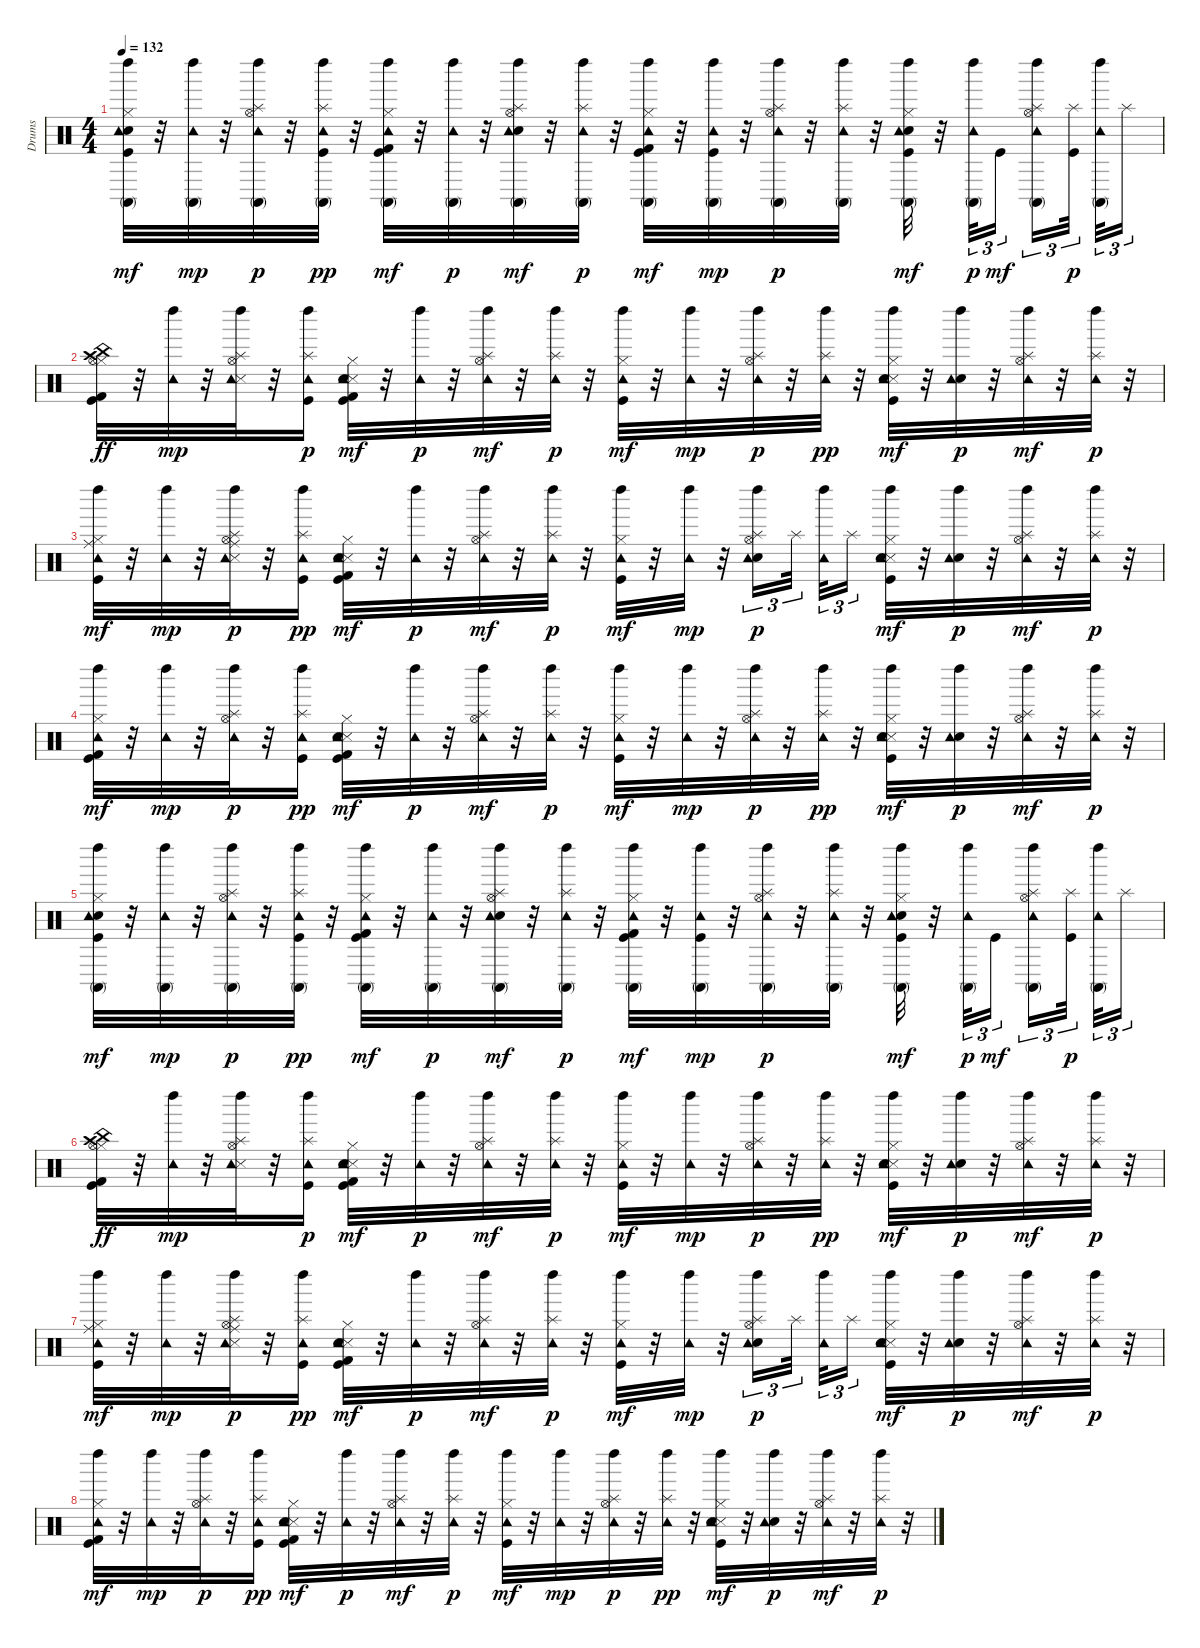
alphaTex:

\track ("Drums" "Drums") {instrument percussion}
\staff {score}
\articulation defaults
\ts (4 4)
\tempo 132
\clef neutral
\ks c
("Kick (hit)" "Hand Clap (hit)" "Hi-Hat (closed)" "Tambourine (hit)" "Conga high (mute)" "Left Maraca (hit)").32{dy mf} r.32 ("Tambourine (hit)" "Conga high (mute)" "Left Maraca (hit)").32{dy mp} r.32 ("Hi-Hat (open)" "Tambourine (hit)" "Splash (hit)" "Conga high (mute)" "Left Maraca (hit)").32{dy p} r.32 ("Kick (hit)" "Tambourine (hit)" "Splash (hit)" "Conga high (mute)" "Left Maraca (hit)").32{dy pp} r.32 ("Kick (hit)" "Kick (hit) 2" "Hi-Hat (closed)" "Tambourine (hit)" "Conga high (mute)" "Left Maraca (hit)").32{dy mf} r.32 ("Tambourine (hit)" "Conga high (mute)" "Left Maraca (hit)").32{dy p} r.32 ("Hand Clap (hit)" "Hi-Hat (open)" "Tambourine (hit)" "Splash (hit)" "Conga high (mute)" "Left Maraca (hit)").32{dy mf} r.32 ("Tambourine (hit)" "Splash (hit)" "Conga high (mute)" "Left Maraca (hit)").32{dy p} r.32 ("Kick (hit)" "Kick (hit) 2" "Hi-Hat (closed)" "Tambourine (hit)" "Conga high (mute)" "Left Maraca (hit)").32{dy mf} r.32 ("Kick (hit)" "Tambourine (hit)" "Conga high (mute)" "Left Maraca (hit)").32{dy mp} r.32 ("Hi-Hat (open)" "Tambourine (hit)" "Splash (hit)" "Conga high (mute)" "Left Maraca (hit)").32{dy p} r.32 ("Tambourine (hit)" "Splash (hit)" "Conga high (mute)" "Left Maraca (hit)").32 r.32 ("Kick (hit)" "Hand Clap (hit)" "Hi-Hat (closed)" "Tambourine (hit)" "Conga high (mute)" "Left Maraca (hit)").32{dy mf} r.32 ("Tambourine (hit)" "Conga high (mute)" "Left Maraca (hit)").32{tu (3 2) dy p} "Kick (hit)".16{tu (3 2) dy mf beam splitsecondary} ("Hi-Hat (open)" "Tambourine (hit)" "Splash (hit)" "Conga high (mute)" "Left Maraca (hit)").16{tu (3 2)} ("Kick (hit)" "Splash (hit)").32{tu (3 2) dy p beam splitsecondary} ("Tambourine (hit)" "Conga high (mute)" "Left Maraca (hit)").32{tu (3 2)} "Splash (hit)".16{tu (3 2)} |
("Kick (hit)" "Kick (hit) 2" "Hi-Hat (closed)" "Hi-Hat (open)" "Crash high (hit)" "China (hit)").32{dy ff} r.32 ("Tambourine (hit)" "Left Maraca (hit)").32{dy mp} r.32 ("Snare (side stick) 3" "Hi-Hat (open)" "Tambourine (hit)" "Splash (hit)" "Left Maraca (hit)").32 r.32 ("Kick (hit)" "Tambourine (hit)" "Splash (hit)" "Left Maraca (hit)").16{dy p} ("Kick (hit)" "Kick (hit) 2" "Snare (side stick) 3" "Hand Clap (hit)" "Hi-Hat (closed)" "Tambourine (hit)").32{dy mf} r.32 ("Tambourine (hit)" "Left Maraca (hit)").32{dy p} r.32 ("Hi-Hat (open)" "Tambourine (hit)" "Splash (hit)" "Left Maraca (hit)").32{dy mf} r.32 ("Tambourine (hit)" "Splash (hit)" "Left Maraca (hit)").32{dy p} r.32 ("Kick (hit)" "Hi-Hat (closed)" "Tambourine (hit)" "Left Maraca (hit)").32{dy mf} r.32 ("Tambourine (hit)" "Left Maraca (hit)").32{dy mp} r.32 ("Hi-Hat (open)" "Tambourine (hit)" "Splash (hit)" "Left Maraca (hit)").32{dy p} r.32 ("Tambourine (hit)" "Splash (hit)" "Left Maraca (hit)").32{dy pp} r.32 ("Kick (hit)" "Snare (side stick) 3" "Hand Clap (hit)" "Hi-Hat (closed)" "Tambourine (hit)" "Left Maraca (hit)").32{dy mf} r.32 ("Hand Clap (hit)" "Tambourine (hit)" "Left Maraca (hit)").32{dy p} r.32 ("Hi-Hat (open)" "Tambourine (hit)" "Splash (hit)" "Left Maraca (hit)").32{dy mf} r.32 ("Tambourine (hit)" "Splash (hit)" "Left Maraca (hit)").32{dy p} r.32 |
("Kick (hit)" "Hi-Hat (closed)" "Ride (middle)" "Tambourine (hit)" "Left Maraca (hit)").32{dy mf} r.32 ("Tambourine (hit)" "Left Maraca (hit)").32{dy mp} r.32 ("Snare (side stick) 3" "Hi-Hat (open)" "Ride (middle)" "Tambourine (hit)" "Splash (hit)" "Left Maraca (hit)").32{dy p} r.32 ("Kick (hit)" "Tambourine (hit)" "Splash (hit)" "Left Maraca (hit)").16{dy pp} ("Kick (hit)" "Kick (hit) 2" "Snare (side stick) 3" "Hand Clap (hit)" "Hi-Hat (closed)" "Tambourine (hit)").32{dy mf} r.32 ("Tambourine (hit)" "Left Maraca (hit)").32{dy p} r.32 ("Hi-Hat (open)" "Tambourine (hit)" "Splash (hit)" "Left Maraca (hit)").32{dy mf} r.32 ("Tambourine (hit)" "Splash (hit)" "Left Maraca (hit)").32{dy p} r.32 ("Kick (hit)" "Hi-Hat (closed)" "Tambourine (hit)" "Left Maraca (hit)").32{dy mf} r.32 ("Tambourine (hit)" "Left Maraca (hit)").32{dy mp} r.32 ("Hand Clap (hit)" "Hi-Hat (open)" "Tambourine (hit)" "Splash (hit)" "Left Maraca (hit)").16{tu (3 2) dy p} "Splash (hit)".32{tu (3 2) beam splitsecondary} ("Tambourine (hit)" "Left Maraca (hit)").32{tu (3 2)} "Splash (hit)".16{tu (3 2)} ("Kick (hit)" "Snare (side stick) 3" "Hand Clap (hit)" "Hi-Hat (closed)" "Tambourine (hit)" "Left Maraca (hit)").32{dy mf} r.32 ("Hand Clap (hit)" "Tambourine (hit)" "Left Maraca (hit)").32{dy p} r.32 ("Hi-Hat (open)" "Tambourine (hit)" "Splash (hit)" "Left Maraca (hit)").32{dy mf} r.32 ("Tambourine (hit)" "Splash (hit)" "Left Maraca (hit)").32{dy p} r.32 |
("Kick (hit)" "Kick (hit) 2" "Hi-Hat (closed)" "Tambourine (hit)" "Left Maraca (hit)").32{dy mf} r.32 ("Tambourine (hit)" "Left Maraca (hit)").32{dy mp} r.32 ("Hi-Hat (open)" "Tambourine (hit)" "Splash (hit)" "Left Maraca (hit)").32{dy p} r.32 ("Kick (hit)" "Tambourine (hit)" "Splash (hit)" "Left Maraca (hit)").16{dy pp} ("Kick (hit)" "Kick (hit) 2" "Snare (side stick) 3" "Hand Clap (hit)" "Hi-Hat (closed)" "Tambourine (hit)").32{dy mf} r.32 ("Tambourine (hit)" "Left Maraca (hit)").32{dy p} r.32 ("Hi-Hat (open)" "Tambourine (hit)" "Splash (hit)" "Left Maraca (hit)").32{dy mf} r.32 ("Tambourine (hit)" "Splash (hit)" "Left Maraca (hit)").32{dy p} r.32 ("Kick (hit)" "Hi-Hat (closed)" "Tambourine (hit)" "Left Maraca (hit)").32{dy mf} r.32 ("Tambourine (hit)" "Left Maraca (hit)").32{dy mp} r.32 ("Hi-Hat (open)" "Tambourine (hit)" "Splash (hit)" "Left Maraca (hit)").32{dy p} r.32 ("Tambourine (hit)" "Splash (hit)" "Left Maraca (hit)").32{dy pp} r.32 ("Kick (hit)" "Snare (side stick) 3" "Hand Clap (hit)" "Hi-Hat (closed)" "Tambourine (hit)" "Left Maraca (hit)").32{dy mf} r.32 ("Hand Clap (hit)" "Tambourine (hit)" "Left Maraca (hit)").32{dy p} r.32 ("Hi-Hat (open)" "Tambourine (hit)" "Splash (hit)" "Left Maraca (hit)").32{dy mf} r.32 ("Tambourine (hit)" "Splash (hit)" "Left Maraca (hit)").32{dy p} r.32 |
("Kick (hit)" "Hand Clap (hit)" "Hi-Hat (closed)" "Tambourine (hit)" "Conga high (mute)" "Left Maraca (hit)").32{dy mf} r.32 ("Tambourine (hit)" "Conga high (mute)" "Left Maraca (hit)").32{dy mp} r.32 ("Hi-Hat (open)" "Tambourine (hit)" "Splash (hit)" "Conga high (mute)" "Left Maraca (hit)").32{dy p} r.32 ("Kick (hit)" "Tambourine (hit)" "Splash (hit)" "Conga high (mute)" "Left Maraca (hit)").32{dy pp} r.32 ("Kick (hit)" "Kick (hit) 2" "Hi-Hat (closed)" "Tambourine (hit)" "Conga high (mute)" "Left Maraca (hit)").32{dy mf} r.32 ("Tambourine (hit)" "Conga high (mute)" "Left Maraca (hit)").32{dy p} r.32 ("Hand Clap (hit)" "Hi-Hat (open)" "Tambourine (hit)" "Splash (hit)" "Conga high (mute)" "Left Maraca (hit)").32{dy mf} r.32 ("Tambourine (hit)" "Splash (hit)" "Conga high (mute)" "Left Maraca (hit)").32{dy p} r.32 ("Kick (hit)" "Kick (hit) 2" "Hi-Hat (closed)" "Tambourine (hit)" "Conga high (mute)" "Left Maraca (hit)").32{dy mf} r.32 ("Kick (hit)" "Tambourine (hit)" "Conga high (mute)" "Left Maraca (hit)").32{dy mp} r.32 ("Hi-Hat (open)" "Tambourine (hit)" "Splash (hit)" "Conga high (mute)" "Left Maraca (hit)").32{dy p} r.32 ("Tambourine (hit)" "Splash (hit)" "Conga high (mute)" "Left Maraca (hit)").32 r.32 ("Kick (hit)" "Hand Clap (hit)" "Hi-Hat (closed)" "Tambourine (hit)" "Conga high (mute)" "Left Maraca (hit)").32{dy mf} r.32 ("Tambourine (hit)" "Conga high (mute)" "Left Maraca (hit)").32{tu (3 2) dy p} "Kick (hit)".16{tu (3 2) dy mf beam splitsecondary} ("Hi-Hat (open)" "Tambourine (hit)" "Splash (hit)" "Conga high (mute)" "Left Maraca (hit)").16{tu (3 2)} ("Kick (hit)" "Splash (hit)").32{tu (3 2) dy p beam splitsecondary} ("Tambourine (hit)" "Conga high (mute)" "Left Maraca (hit)").32{tu (3 2)} "Splash (hit)".16{tu (3 2)} |
("Kick (hit)" "Kick (hit) 2" "Hi-Hat (closed)" "Hi-Hat (open)" "Crash high (hit)" "China (hit)").32{dy ff} r.32 ("Tambourine (hit)" "Left Maraca (hit)").32{dy mp} r.32 ("Snare (side stick) 3" "Hi-Hat (open)" "Tambourine (hit)" "Splash (hit)" "Left Maraca (hit)").32 r.32 ("Kick (hit)" "Tambourine (hit)" "Splash (hit)" "Left Maraca (hit)").16{dy p} ("Kick (hit)" "Kick (hit) 2" "Snare (side stick) 3" "Hand Clap (hit)" "Hi-Hat (closed)" "Tambourine (hit)").32{dy mf} r.32 ("Tambourine (hit)" "Left Maraca (hit)").32{dy p} r.32 ("Hi-Hat (open)" "Tambourine (hit)" "Splash (hit)" "Left Maraca (hit)").32{dy mf} r.32 ("Tambourine (hit)" "Splash (hit)" "Left Maraca (hit)").32{dy p} r.32 ("Kick (hit)" "Hi-Hat (closed)" "Tambourine (hit)" "Left Maraca (hit)").32{dy mf} r.32 ("Tambourine (hit)" "Left Maraca (hit)").32{dy mp} r.32 ("Hi-Hat (open)" "Tambourine (hit)" "Splash (hit)" "Left Maraca (hit)").32{dy p} r.32 ("Tambourine (hit)" "Splash (hit)" "Left Maraca (hit)").32{dy pp} r.32 ("Kick (hit)" "Snare (side stick) 3" "Hand Clap (hit)" "Hi-Hat (closed)" "Tambourine (hit)" "Left Maraca (hit)").32{dy mf} r.32 ("Hand Clap (hit)" "Tambourine (hit)" "Left Maraca (hit)").32{dy p} r.32 ("Hi-Hat (open)" "Tambourine (hit)" "Splash (hit)" "Left Maraca (hit)").32{dy mf} r.32 ("Tambourine (hit)" "Splash (hit)" "Left Maraca (hit)").32{dy p} r.32 |
("Kick (hit)" "Hi-Hat (closed)" "Ride (middle)" "Tambourine (hit)" "Left Maraca (hit)").32{dy mf} r.32 ("Tambourine (hit)" "Left Maraca (hit)").32{dy mp} r.32 ("Snare (side stick) 3" "Hi-Hat (open)" "Ride (middle)" "Tambourine (hit)" "Splash (hit)" "Left Maraca (hit)").32{dy p} r.32 ("Kick (hit)" "Tambourine (hit)" "Splash (hit)" "Left Maraca (hit)").16{dy pp} ("Kick (hit)" "Kick (hit) 2" "Snare (side stick) 3" "Hand Clap (hit)" "Hi-Hat (closed)" "Tambourine (hit)").32{dy mf} r.32 ("Tambourine (hit)" "Left Maraca (hit)").32{dy p} r.32 ("Hi-Hat (open)" "Tambourine (hit)" "Splash (hit)" "Left Maraca (hit)").32{dy mf} r.32 ("Tambourine (hit)" "Splash (hit)" "Left Maraca (hit)").32{dy p} r.32 ("Kick (hit)" "Hi-Hat (closed)" "Tambourine (hit)" "Left Maraca (hit)").32{dy mf} r.32 ("Tambourine (hit)" "Left Maraca (hit)").32{dy mp} r.32 ("Hand Clap (hit)" "Hi-Hat (open)" "Tambourine (hit)" "Splash (hit)" "Left Maraca (hit)").16{tu (3 2) dy p} "Splash (hit)".32{tu (3 2) beam splitsecondary} ("Tambourine (hit)" "Left Maraca (hit)").32{tu (3 2)} "Splash (hit)".16{tu (3 2)} ("Kick (hit)" "Snare (side stick) 3" "Hand Clap (hit)" "Hi-Hat (closed)" "Tambourine (hit)" "Left Maraca (hit)").32{dy mf} r.32 ("Hand Clap (hit)" "Tambourine (hit)" "Left Maraca (hit)").32{dy p} r.32 ("Hi-Hat (open)" "Tambourine (hit)" "Splash (hit)" "Left Maraca (hit)").32{dy mf} r.32 ("Tambourine (hit)" "Splash (hit)" "Left Maraca (hit)").32{dy p} r.32 |
("Kick (hit)" "Kick (hit) 2" "Hi-Hat (closed)" "Tambourine (hit)" "Left Maraca (hit)").32{dy mf} r.32 ("Tambourine (hit)" "Left Maraca (hit)").32{dy mp} r.32 ("Hi-Hat (open)" "Tambourine (hit)" "Splash (hit)" "Left Maraca (hit)").32{dy p} r.32 ("Kick (hit)" "Tambourine (hit)" "Splash (hit)" "Left Maraca (hit)").16{dy pp} ("Kick (hit)" "Kick (hit) 2" "Snare (side stick) 3" "Hand Clap (hit)" "Hi-Hat (closed)" "Tambourine (hit)").32{dy mf} r.32 ("Tambourine (hit)" "Left Maraca (hit)").32{dy p} r.32 ("Hi-Hat (open)" "Tambourine (hit)" "Splash (hit)" "Left Maraca (hit)").32{dy mf} r.32 ("Tambourine (hit)" "Splash (hit)" "Left Maraca (hit)").32{dy p} r.32 ("Kick (hit)" "Hi-Hat (closed)" "Tambourine (hit)" "Left Maraca (hit)").32{dy mf} r.32 ("Tambourine (hit)" "Left Maraca (hit)").32{dy mp} r.32 ("Hi-Hat (open)" "Tambourine (hit)" "Splash (hit)" "Left Maraca (hit)").32{dy p} r.32 ("Tambourine (hit)" "Splash (hit)" "Left Maraca (hit)").32{dy pp} r.32 ("Kick (hit)" "Snare (side stick) 3" "Hand Clap (hit)" "Hi-Hat (closed)" "Tambourine (hit)" "Left Maraca (hit)").32{dy mf} r.32 ("Hand Clap (hit)" "Tambourine (hit)" "Left Maraca (hit)").32{dy p} r.32 ("Hi-Hat (open)" "Tambourine (hit)" "Splash (hit)" "Left Maraca (hit)").32{dy mf} r.32 ("Tambourine (hit)" "Splash (hit)" "Left Maraca (hit)").32{dy p} r.32
